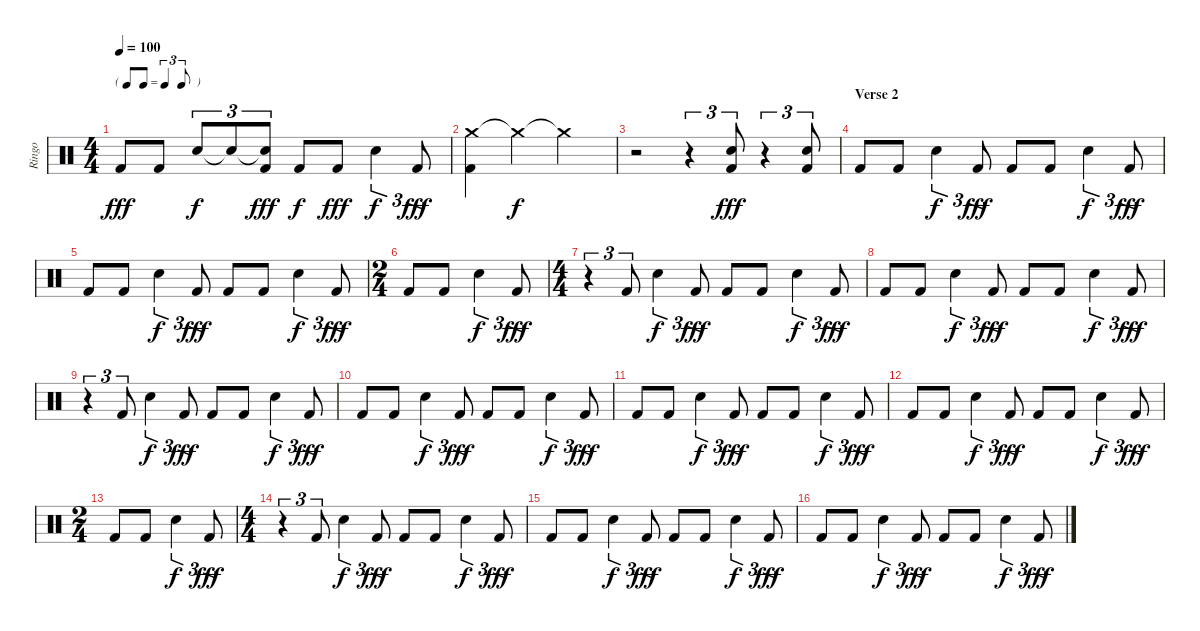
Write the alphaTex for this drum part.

\track ("Ringo" "Ringo") {instrument percussion}
\staff {score}
\articulation defaults
\ts (4 4)
\tf triplet8th
\tempo 100
\clef neutral
\ks c "Kick (hit) 2".8{dy fff} "Kick (hit) 2".8 "Snare (hit) 2".8{tu (3 2) dy f} "Snare (hit)"{t}.8{tu (3 2)}
("Snare (hit)"{t} "Kick (hit) 2").8{tu (3 2) dy fff} "Kick (hit) 2".8{dy f} "Kick (hit) 2".8{dy fff} "Snare (hit) 2".4{tu (3 2) dy f} "Kick (hit) 2".8{tu (3 2) dy fff} |
("Crash medium (hit)" "Kick (hit) 2").4 "Crash medium (hit)"{t}.4{dy f} "Crash medium (hit)"{t}.2 |
r.2 r.4{tu (3 2)} ("Snare (hit) 2" "Kick (hit) 2").8{tu (3 2) dy fff} r.4{tu (3 2)} ("Snare (hit) 2" "Kick (hit) 2").8{tu (3 2)} |
\section ("" "Verse 2")
"Kick (hit) 2".8 "Kick (hit) 2".8 "Snare (hit) 2".4{tu (3 2) dy f} "Kick (hit) 2".8{tu (3 2) dy fff} "Kick (hit) 2".8 "Kick (hit) 2".8 "Snare (hit) 2".4{tu (3 2) dy f} "Kick (hit) 2".8{tu (3 2) dy fff} |
"Kick (hit) 2".8 "Kick (hit) 2".8 "Snare (hit) 2".4{tu (3 2) dy f} "Kick (hit) 2".8{tu (3 2) dy fff} "Kick (hit) 2".8 "Kick (hit) 2".8 "Snare (hit) 2".4{tu (3 2) dy f} "Kick (hit) 2".8{tu (3 2) dy fff} |
\ts (2 4)
"Kick (hit) 2".8 "Kick (hit) 2".8 "Snare (hit) 2".4{tu (3 2) dy f} "Kick (hit) 2".8{tu (3 2) dy fff} |
\ts (4 4)
r.4{tu (3 2)} "Kick (hit) 2".8{tu (3 2)} "Snare (hit) 2".4{tu (3 2) dy f} "Kick (hit) 2".8{tu (3 2) dy fff} "Kick (hit) 2".8 "Kick (hit) 2".8 "Snare (hit) 2".4{tu (3 2) dy f} "Kick (hit) 2".8{tu (3 2) dy fff} |
"Kick (hit) 2".8 "Kick (hit) 2".8 "Snare (hit) 2".4{tu (3 2) dy f} "Kick (hit) 2".8{tu (3 2) dy fff} "Kick (hit) 2".8 "Kick (hit) 2".8 "Snare (hit) 2".4{tu (3 2) dy f} "Kick (hit) 2".8{tu (3 2) dy fff} |
r.4{tu (3 2)} "Kick (hit) 2".8{tu (3 2)} "Snare (hit) 2".4{tu (3 2) dy f} "Kick (hit) 2".8{tu (3 2) dy fff} "Kick (hit) 2".8 "Kick (hit) 2".8 "Snare (hit) 2".4{tu (3 2) dy f} "Kick (hit) 2".8{tu (3 2) dy fff} |
"Kick (hit) 2".8 "Kick (hit) 2".8 "Snare (hit) 2".4{tu (3 2) dy f} "Kick (hit) 2".8{tu (3 2) dy fff} "Kick (hit) 2".8 "Kick (hit) 2".8 "Snare (hit) 2".4{tu (3 2) dy f} "Kick (hit) 2".8{tu (3 2) dy fff} |
"Kick (hit) 2".8 "Kick (hit) 2".8 "Snare (hit) 2".4{tu (3 2) dy f} "Kick (hit) 2".8{tu (3 2) dy fff} "Kick (hit) 2".8 "Kick (hit) 2".8 "Snare (hit) 2".4{tu (3 2) dy f} "Kick (hit) 2".8{tu (3 2) dy fff} |
"Kick (hit) 2".8 "Kick (hit) 2".8 "Snare (hit) 2".4{tu (3 2) dy f} "Kick (hit) 2".8{tu (3 2) dy fff} "Kick (hit) 2".8 "Kick (hit) 2".8 "Snare (hit) 2".4{tu (3 2) dy f} "Kick (hit) 2".8{tu (3 2) dy fff} |
\ts (2 4)
"Kick (hit) 2".8 "Kick (hit) 2".8 "Snare (hit) 2".4{tu (3 2) dy f} "Kick (hit) 2".8{tu (3 2) dy fff} |
\ts (4 4)
r.4{tu (3 2)} "Kick (hit) 2".8{tu (3 2)} "Snare (hit) 2".4{tu (3 2) dy f} "Kick (hit) 2".8{tu (3 2) dy fff} "Kick (hit) 2".8 "Kick (hit) 2".8 "Snare (hit) 2".4{tu (3 2) dy f} "Kick (hit) 2".8{tu (3 2) dy fff} |
"Kick (hit) 2".8 "Kick (hit) 2".8 "Snare (hit) 2".4{tu (3 2) dy f} "Kick (hit) 2".8{tu (3 2) dy fff} "Kick (hit) 2".8 "Kick (hit) 2".8 "Snare (hit) 2".4{tu (3 2) dy f} "Kick (hit) 2".8{tu (3 2) dy fff} |
"Kick (hit) 2".8 "Kick (hit) 2".8 "Snare (hit) 2".4{tu (3 2) dy f} "Kick (hit) 2".8{tu (3 2) dy fff} "Kick (hit) 2".8 "Kick (hit) 2".8 "Snare (hit) 2".4{tu (3 2) dy f} "Kick (hit) 2".8{tu (3 2) dy fff}
